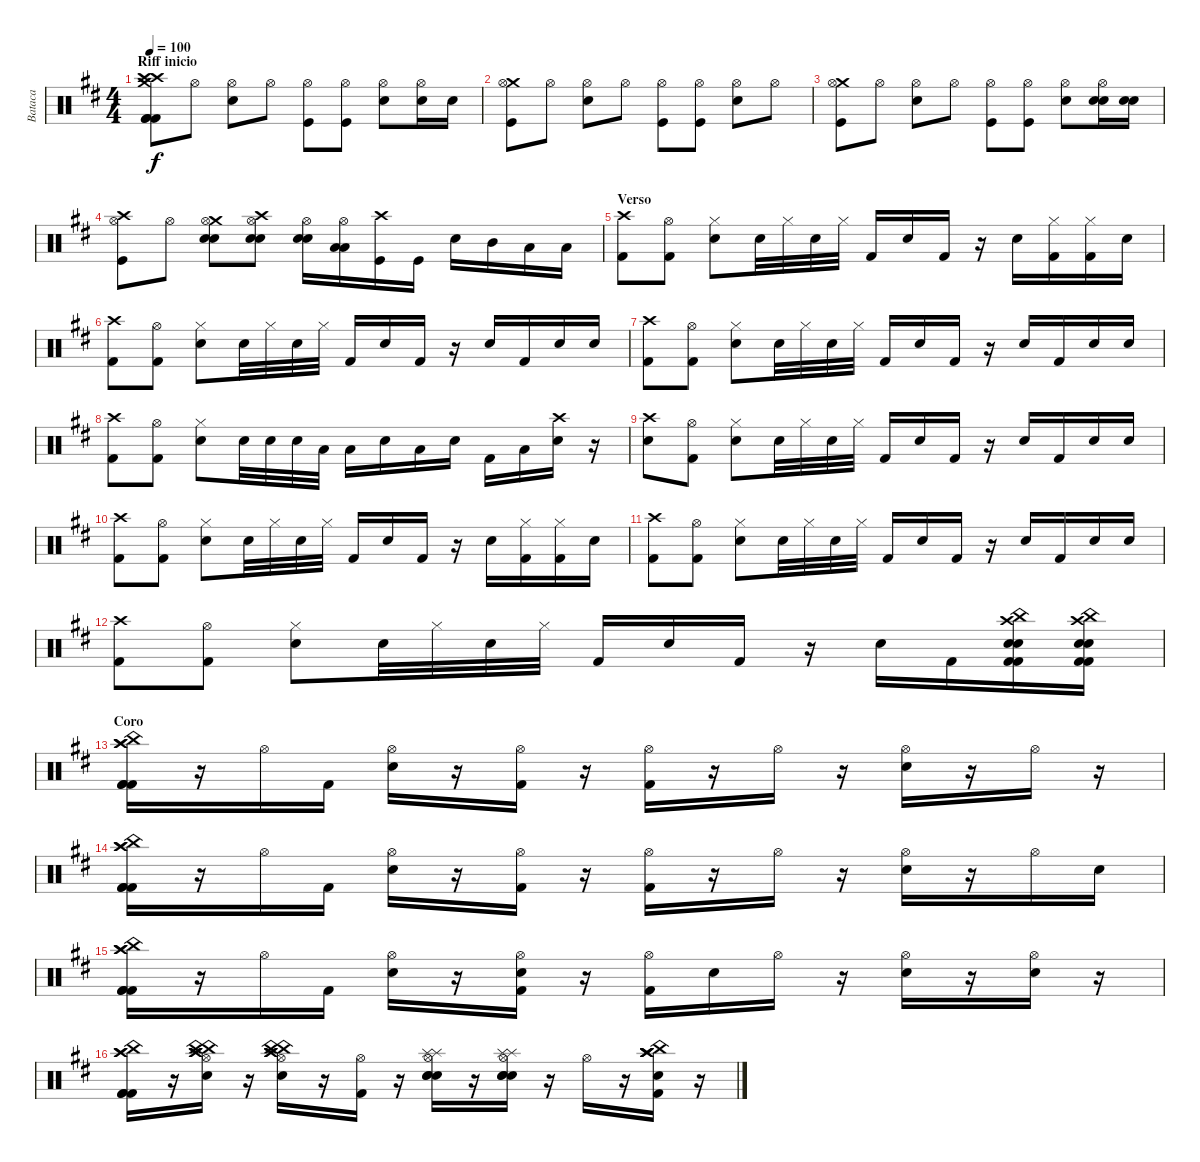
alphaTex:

\track ("Bataca" "Bataca") {instrument percussion}
\staff {score}
\articulation defaults
\ts (4 4)
\section ("" "Riff inicio")
\tempo 100
\clef neutral
\ks d
("Crash medium (hit)" "Crash high (hit)" "Crash high (hit)" "Kick (hit) 2" "Kick (hit) 2" "Kick (hit) 2").8{dy f} "Hi-Hat (open)".8 ("Hi-Hat (open)" "Snare (hit) 2").8 "Hi-Hat (open)".8 ("Hi-Hat (open)" "Kick (hit)").8 ("Hi-Hat (open)" "Kick (hit)").8 ("Hi-Hat (open)" "Snare (hit) 2").8 ("Hi-Hat (open)" "Snare (hit) 2").16 "Snare (hit) 2".16 |
("Crash medium (hit)" "Hi-Hat (open)" "Kick (hit)").8 "Hi-Hat (open)".8 ("Hi-Hat (open)" "Snare (hit) 2").8 "Hi-Hat (open)".8 ("Hi-Hat (open)" "Kick (hit)").8 ("Hi-Hat (open)" "Kick (hit)").8 ("Hi-Hat (open)" "Snare (hit) 2").8 "Hi-Hat (open)".8 |
("Crash medium (hit)" "Hi-Hat (open)" "Kick (hit)").8 "Hi-Hat (open)".8 ("Hi-Hat (open)" "Snare (hit) 2").8 "Hi-Hat (open)".8 ("Hi-Hat (open)" "Kick (hit)").8 ("Hi-Hat (open)" "Kick (hit)").8 ("Hi-Hat (open)" "Snare (hit) 2").8 ("Hi-Hat (open)" "Snare (hit) 2" "Snare (hit) 2").16 ("Snare (hit) 2" "Snare (hit) 2").16 |
("Crash high (hit)" "Hi-Hat (open)" "Kick (hit)").8 "Hi-Hat (open)".8 ("Crash medium (hit)" "Hi-Hat (open)" "Snare (hit) 2" "Snare (hit) 2").8 ("Crash high (hit)" "Hi-Hat (open)" "Snare (hit) 2" "Snare (hit) 2").8 ("Hi-Hat (open)" "Snare (hit) 2" "Snare (hit) 2").16 ("Hi-Hat (open)" "Low Floor Tom (hit)" "Low Floor Tom (hit)").16 ("Crash high (hit)" "Kick (hit)").16 "Kick (hit)".16 "Snare (hit) 2".16 "Mid Tom (hit)".16 "Low Tom (hit)".16 "Low Tom (hit)".16 |
\section ("" "Verso")
("Crash high (hit)" "Kick (hit) 2").8 ("Hi-Hat (open)" "Kick (hit) 2").8 ("Hi-Hat (closed)" "Snare (hit) 2").8 "Snare (hit) 2".32 "Hi-Hat (closed)".32 "Snare (hit) 2".32 "Hi-Hat (closed)".32 "Kick (hit) 2".16 "Snare (hit) 2".16 "Kick (hit) 2".16 r.16 "Snare (hit) 2".16 ("Kick (hit) 2" "Hi-Hat (closed)").16 ("Kick (hit) 2" "Hi-Hat (closed)").16 "Snare (hit) 2".16 |
("Crash high (hit)" "Kick (hit) 2").8 ("Hi-Hat (open)" "Kick (hit) 2").8 ("Hi-Hat (closed)" "Snare (hit) 2").8 "Snare (hit) 2".32 "Hi-Hat (closed)".32 "Snare (hit) 2".32 "Hi-Hat (closed)".32 "Kick (hit) 2".16 "Snare (hit) 2".16 "Kick (hit) 2".16 r.16 "Snare (hit) 2".16 "Kick (hit) 2".16 "Snare (hit) 2".16 "Snare (hit) 2".16 |
("Crash high (hit)" "Kick (hit) 2").8 ("Hi-Hat (open)" "Kick (hit) 2").8 ("Hi-Hat (closed)" "Snare (hit) 2").8 "Snare (hit) 2".32 "Hi-Hat (closed)".32 "Snare (hit) 2".32 "Hi-Hat (closed)".32 "Kick (hit) 2".16 "Snare (hit) 2".16 "Kick (hit) 2".16 r.16 "Snare (hit) 2".16 "Kick (hit) 2".16 "Snare (hit) 2".16 "Snare (hit) 2".16 |
("Crash high (hit)" "Kick (hit) 2").8 ("Hi-Hat (open)" "Kick (hit) 2").8 ("Hi-Hat (closed)" "Snare (hit) 2").8 "Snare (hit) 2".32 "Snare (hit) 2".32 "Snare (hit) 2".32 "Low Floor Tom (hit)".32 "Low Floor Tom (hit)".16 "Snare (hit) 2".16 "Low Floor Tom (hit)".16 "Snare (hit) 2".16 "Kick (hit) 2".16 "Low Floor Tom (hit)".16 ("Snare (hit) 2" "Crash high (hit)").16 r.16 |
("Snare (hit) 2" "Crash high (hit)").8 ("Hi-Hat (open)" "Kick (hit) 2").8 ("Hi-Hat (closed)" "Snare (hit) 2").8 "Snare (hit) 2".32 "Hi-Hat (closed)".32 "Snare (hit) 2".32 "Hi-Hat (closed)".32 "Kick (hit) 2".16 "Snare (hit) 2".16 "Kick (hit) 2".16 r.16 "Snare (hit) 2".16 "Kick (hit) 2".16 "Snare (hit) 2".16 "Snare (hit) 2".16 |
("Crash high (hit)" "Kick (hit) 2").8 ("Hi-Hat (open)" "Kick (hit) 2").8 ("Hi-Hat (closed)" "Snare (hit) 2").8 "Snare (hit) 2".32 "Hi-Hat (closed)".32 "Snare (hit) 2".32 "Hi-Hat (closed)".32 "Kick (hit) 2".16 "Snare (hit) 2".16 "Kick (hit) 2".16 r.16 "Snare (hit) 2".16 ("Kick (hit) 2" "Hi-Hat (closed)").16 ("Kick (hit) 2" "Hi-Hat (closed)").16 "Snare (hit) 2".16 |
("Crash high (hit)" "Kick (hit) 2").8 ("Hi-Hat (open)" "Kick (hit) 2").8 ("Hi-Hat (closed)" "Snare (hit) 2").8 "Snare (hit) 2".32 "Hi-Hat (closed)".32 "Snare (hit) 2".32 "Hi-Hat (closed)".32 "Kick (hit) 2".16 "Snare (hit) 2".16 "Kick (hit) 2".16 r.16 "Snare (hit) 2".16 "Kick (hit) 2".16 "Snare (hit) 2".16 "Snare (hit) 2".16 |
("Crash high (hit)" "Kick (hit) 2").8 ("Hi-Hat (open)" "Kick (hit) 2").8 ("Hi-Hat (closed)" "Snare (hit) 2").8 "Snare (hit) 2".32 "Hi-Hat (closed)".32 "Snare (hit) 2".32 "Hi-Hat (closed)".32 "Kick (hit) 2".16 "Snare (hit) 2".16 "Kick (hit) 2".16 r.16 "Snare (hit) 2".16 "Kick (hit) 2".16 ("Snare (hit) 2" "Crash high (hit)" "China (hit)" "Snare (hit) 2" "Kick (hit) 2" "Kick (hit) 2").16 ("Snare (hit) 2" "Crash high (hit)" "China (hit)" "Snare (hit) 2" "Kick (hit) 2" "Kick (hit) 2").16 |
\section ("" "Coro")
("Crash high (hit)" "Crash high (hit)" "China (hit)" "Kick (hit) 2" "Kick (hit) 2" "Kick (hit) 2").16 r.16 "Hi-Hat (open)".16 "Kick (hit) 2".16 ("Hi-Hat (open)" "Snare (hit) 2").16 r.16 ("Hi-Hat (open)" "Kick (hit) 2").16 r.16 ("Hi-Hat (open)" "Kick (hit) 2").16 r.16 "Hi-Hat (open)".16 r.16 ("Hi-Hat (open)" "Snare (hit) 2").16 r.16 "Hi-Hat (open)".16 r.16 |
("Crash high (hit)" "Crash high (hit)" "China (hit)" "Kick (hit) 2" "Kick (hit) 2" "Kick (hit) 2").16 r.16 "Hi-Hat (open)".16 "Kick (hit) 2".16 ("Hi-Hat (open)" "Snare (hit) 2").16 r.16 ("Hi-Hat (open)" "Kick (hit) 2").16 r.16 ("Hi-Hat (open)" "Kick (hit) 2").16 r.16 "Hi-Hat (open)".16 r.16 ("Hi-Hat (open)" "Snare (hit) 2").16 r.16 "Hi-Hat (open)".16 "Snare (hit) 2".16 |
("Crash high (hit)" "Crash high (hit)" "China (hit)" "Kick (hit) 2" "Kick (hit) 2" "Kick (hit) 2").16 r.16 "Hi-Hat (open)".16 "Kick (hit) 2".16 ("Hi-Hat (open)" "Snare (hit) 2").16 r.16 ("Hi-Hat (open)" "Snare (hit) 2" "Kick (hit) 2").16 r.16 ("Hi-Hat (open)" "Kick (hit) 2").16 "Snare (hit) 2".16 "Hi-Hat (open)".16 r.16 ("Hi-Hat (open)" "Snare (hit) 2").16 r.16 ("Hi-Hat (open)" "Snare (hit) 2").16 r.16 |
("Crash high (hit)" "Crash high (hit)" "China (hit)" "Kick (hit) 2" "Kick (hit) 2" "Kick (hit) 2").16 r.16 ("Hi-Hat (open)" "Snare (hit) 2" "Crash high (hit)" "Crash high (hit)" "China (hit)" "China (hit)").16 r.16 ("Hi-Hat (open)" "Snare (hit) 2" "Crash high (hit)" "Crash high (hit)" "China (hit)" "China (hit)").16 r.16 ("Hi-Hat (open)" "Kick (hit) 2").16 r.16 ("Hi-Hat (open)" "Snare (hit) 2" "Snare (hit)" "Snare (hit)" "Splash (hit)" "Splash (hit)").16 r.16 ("Hi-Hat (open)" "Snare (hit) 2" "Snare (hit)" "Snare (hit)" "Splash (hit)" "Splash (hit)").16 r.16 "Hi-Hat (open)".16 r.16 ("Kick (hit) 2" "Snare (hit) 2" "Crash high (hit)" "Crash high (hit)" "China (hit)" "Crash high (hit)").16 r.16
